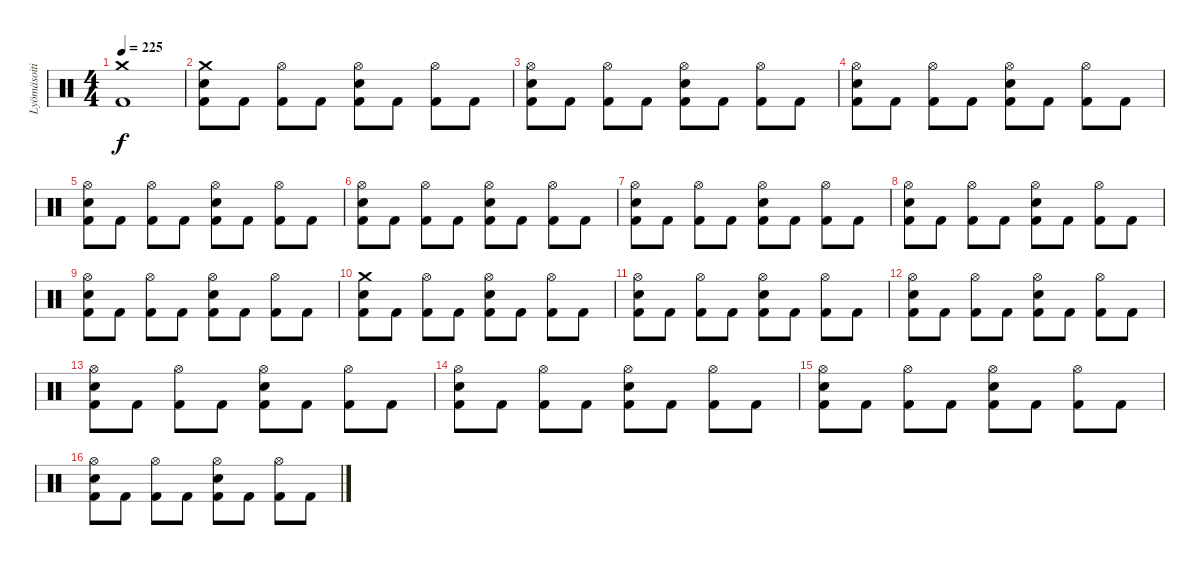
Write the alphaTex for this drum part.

\track ("Lyömäsoitin" "Lyömäsoiti") {instrument percussion}
\staff {score}
\articulation defaults
\ts (4 4)
\tempo 225
\clef neutral
\ks c
("Crash medium (hit)" "Kick (hit) 2").1{dy f} |
("Crash medium (hit)" "Snare (hit) 2" "Kick (hit) 2").8 "Kick (hit) 2".8 ("Hi-Hat (open)" "Kick (hit) 2").8 "Kick (hit) 2".8 ("Hi-Hat (open)" "Snare (hit) 2" "Kick (hit) 2").8 "Kick (hit) 2".8 ("Hi-Hat (open)" "Kick (hit) 2").8 "Kick (hit) 2".8 |
("Hi-Hat (open)" "Snare (hit) 2" "Kick (hit) 2").8 "Kick (hit) 2".8 ("Hi-Hat (open)" "Kick (hit) 2").8 "Kick (hit) 2".8 ("Hi-Hat (open)" "Snare (hit) 2" "Kick (hit) 2").8 "Kick (hit) 2".8 ("Hi-Hat (open)" "Kick (hit) 2").8 "Kick (hit) 2".8 |
("Hi-Hat (open)" "Snare (hit) 2" "Kick (hit) 2").8 "Kick (hit) 2".8 ("Hi-Hat (open)" "Kick (hit) 2").8 "Kick (hit) 2".8 ("Hi-Hat (open)" "Snare (hit) 2" "Kick (hit) 2").8 "Kick (hit) 2".8 ("Hi-Hat (open)" "Kick (hit) 2").8 "Kick (hit) 2".8 |
("Hi-Hat (open)" "Snare (hit) 2" "Kick (hit) 2").8 "Kick (hit) 2".8 ("Hi-Hat (open)" "Kick (hit) 2").8 "Kick (hit) 2".8 ("Hi-Hat (open)" "Snare (hit) 2" "Kick (hit) 2").8 "Kick (hit) 2".8 ("Hi-Hat (open)" "Kick (hit) 2").8 "Kick (hit) 2".8 |
("Hi-Hat (open)" "Snare (hit) 2" "Kick (hit) 2").8 "Kick (hit) 2".8 ("Hi-Hat (open)" "Kick (hit) 2").8 "Kick (hit) 2".8 ("Hi-Hat (open)" "Snare (hit) 2" "Kick (hit) 2").8 "Kick (hit) 2".8 ("Hi-Hat (open)" "Kick (hit) 2").8 "Kick (hit) 2".8 |
("Hi-Hat (open)" "Snare (hit) 2" "Kick (hit) 2").8 "Kick (hit) 2".8 ("Hi-Hat (open)" "Kick (hit) 2").8 "Kick (hit) 2".8 ("Hi-Hat (open)" "Snare (hit) 2" "Kick (hit) 2").8 "Kick (hit) 2".8 ("Hi-Hat (open)" "Kick (hit) 2").8 "Kick (hit) 2".8 |
("Hi-Hat (open)" "Snare (hit) 2" "Kick (hit) 2").8 "Kick (hit) 2".8 ("Hi-Hat (open)" "Kick (hit) 2").8 "Kick (hit) 2".8 ("Hi-Hat (open)" "Snare (hit) 2" "Kick (hit) 2").8 "Kick (hit) 2".8 ("Hi-Hat (open)" "Kick (hit) 2").8 "Kick (hit) 2".8 |
("Hi-Hat (open)" "Snare (hit) 2" "Kick (hit) 2").8 "Kick (hit) 2".8 ("Hi-Hat (open)" "Kick (hit) 2").8 "Kick (hit) 2".8 ("Hi-Hat (open)" "Snare (hit) 2" "Kick (hit) 2").8 "Kick (hit) 2".8 ("Hi-Hat (open)" "Kick (hit) 2").8 "Kick (hit) 2".8 |
("Crash medium (hit)" "Snare (hit) 2" "Kick (hit) 2").8 "Kick (hit) 2".8 ("Hi-Hat (open)" "Kick (hit) 2").8 "Kick (hit) 2".8 ("Hi-Hat (open)" "Snare (hit) 2" "Kick (hit) 2").8 "Kick (hit) 2".8 ("Hi-Hat (open)" "Kick (hit) 2").8 "Kick (hit) 2".8 |
("Hi-Hat (open)" "Snare (hit) 2" "Kick (hit) 2").8 "Kick (hit) 2".8 ("Hi-Hat (open)" "Kick (hit) 2").8 "Kick (hit) 2".8 ("Hi-Hat (open)" "Snare (hit) 2" "Kick (hit) 2").8 "Kick (hit) 2".8 ("Hi-Hat (open)" "Kick (hit) 2").8 "Kick (hit) 2".8 |
("Hi-Hat (open)" "Snare (hit) 2" "Kick (hit) 2").8 "Kick (hit) 2".8 ("Hi-Hat (open)" "Kick (hit) 2").8 "Kick (hit) 2".8 ("Hi-Hat (open)" "Snare (hit) 2" "Kick (hit) 2").8 "Kick (hit) 2".8 ("Hi-Hat (open)" "Kick (hit) 2").8 "Kick (hit) 2".8 |
("Hi-Hat (open)" "Snare (hit) 2" "Kick (hit) 2").8 "Kick (hit) 2".8 ("Hi-Hat (open)" "Kick (hit) 2").8 "Kick (hit) 2".8 ("Hi-Hat (open)" "Snare (hit) 2" "Kick (hit) 2").8 "Kick (hit) 2".8 ("Hi-Hat (open)" "Kick (hit) 2").8 "Kick (hit) 2".8 |
("Hi-Hat (open)" "Snare (hit) 2" "Kick (hit) 2").8 "Kick (hit) 2".8 ("Hi-Hat (open)" "Kick (hit) 2").8 "Kick (hit) 2".8 ("Hi-Hat (open)" "Snare (hit) 2" "Kick (hit) 2").8 "Kick (hit) 2".8 ("Hi-Hat (open)" "Kick (hit) 2").8 "Kick (hit) 2".8 |
("Hi-Hat (open)" "Snare (hit) 2" "Kick (hit) 2").8 "Kick (hit) 2".8 ("Hi-Hat (open)" "Kick (hit) 2").8 "Kick (hit) 2".8 ("Hi-Hat (open)" "Snare (hit) 2" "Kick (hit) 2").8 "Kick (hit) 2".8 ("Hi-Hat (open)" "Kick (hit) 2").8 "Kick (hit) 2".8 |
("Hi-Hat (open)" "Snare (hit) 2" "Kick (hit) 2").8 "Kick (hit) 2".8 ("Hi-Hat (open)" "Kick (hit) 2").8 "Kick (hit) 2".8 ("Hi-Hat (open)" "Snare (hit) 2" "Kick (hit) 2").8 "Kick (hit) 2".8 ("Hi-Hat (open)" "Kick (hit) 2").8 "Kick (hit) 2".8
